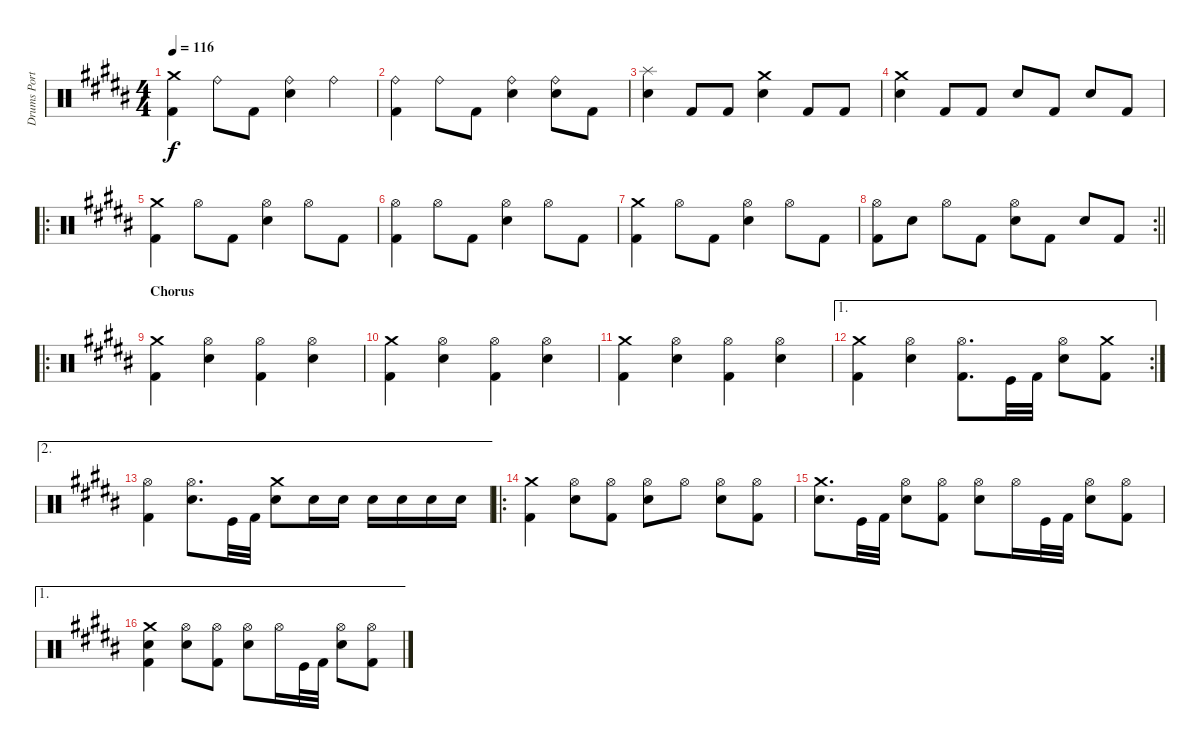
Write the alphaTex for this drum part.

\track ("Drums Portnoy" "Drums Port") {instrument percussion}
\staff {score}
\articulation defaults
\ts (4 4)
\tempo 116
\clef neutral
\ks g#minor
("Crash medium (hit)" "Kick (hit) 2").4{dy f} "Ride (bell)".8 "Kick (hit) 2".8 ("Ride (bell)" "Snare (hit) 2").4 "Ride (bell)".4 |
("Ride (bell)" "Kick (hit) 2").4 "Ride (bell)".8 "Kick (hit) 2".8 ("Ride (bell)" "Snare (hit) 2").4 ("Ride (bell)" "Snare (hit) 2").8 "Kick (hit) 2".8 |
("Splash (hit)" "Snare (hit) 2").4 "Kick (hit) 2".8 "Kick (hit) 2".8 ("Crash medium (hit)" "Snare (hit) 2").4 "Kick (hit) 2".8 "Kick (hit) 2".8 |
\ks b
("Crash medium (hit)" "Snare (hit) 2").4 "Kick (hit) 2".8 "Kick (hit) 2".8 "Snare (hit) 2".8 "Kick (hit) 2".8 "Snare (hit) 2".8 "Kick (hit) 2".8 |
\ro
\ks g#minor
("Crash medium (hit)" "Kick (hit) 2").4 "Hi-Hat (open)".8 "Kick (hit) 2".8 ("Hi-Hat (open)" "Snare (hit) 2").4 "Hi-Hat (open)".8 "Kick (hit) 2".8 |
\ks b
("Hi-Hat (open)" "Kick (hit) 2").4 "Hi-Hat (open)".8 "Kick (hit) 2".8 ("Hi-Hat (open)" "Snare (hit) 2").4 "Hi-Hat (open)".8 "Kick (hit) 2".8 |
\ks g#minor
("Crash medium (hit)" "Kick (hit) 2").4 "Hi-Hat (open)".8 "Kick (hit) 2".8 ("Hi-Hat (open)" "Snare (hit) 2").4 "Hi-Hat (open)".8 "Kick (hit) 2".8 |
\rc 2
\barLineRight lightlight
("Hi-Hat (open)" "Kick (hit) 2").8 "Snare (hit) 2".8 "Hi-Hat (open)".8 "Kick (hit) 2".8 ("Hi-Hat (open)" "Snare (hit) 2").8 "Kick (hit) 2".8 "Snare (hit) 2".8 "Kick (hit) 2".8 |
\ro
\section ("" "Chorus")
("Crash medium (hit)" "Kick (hit) 2").4 ("Hi-Hat (open)" "Snare (hit) 2").4 ("Hi-Hat (open)" "Kick (hit) 2").4 ("Hi-Hat (open)" "Snare (hit) 2").4 |
\ks b
("Crash medium (hit)" "Kick (hit) 2").4 ("Hi-Hat (open)" "Snare (hit) 2").4 ("Hi-Hat (open)" "Kick (hit) 2").4 ("Hi-Hat (open)" "Snare (hit) 2").4 |
\ks g#minor
("Crash medium (hit)" "Kick (hit) 2").4 ("Hi-Hat (open)" "Snare (hit) 2").4 ("Hi-Hat (open)" "Kick (hit) 2").4 ("Hi-Hat (open)" "Snare (hit) 2").4 |
\ae 1
\rc 2
("Crash medium (hit)" "Kick (hit) 2").4 ("Hi-Hat (open)" "Snare (hit) 2").4 ("Hi-Hat (open)" "Kick (hit) 2").8{d} "Kick (hit)".32 "Kick (hit) 2".32 ("Hi-Hat (open)" "Snare (hit) 2").8 ("Crash medium (hit)" "Kick (hit) 2").8 |
\ae 2
("Hi-Hat (open)" "Kick (hit) 2").4 ("Hi-Hat (open)" "Snare (hit) 2").8{d} "Kick (hit)".32 "Kick (hit) 2".32 ("Crash medium (hit)" "Snare (hit) 2").8 "Snare (hit) 2".16 "Snare (hit) 2".16 "Snare (hit) 2".16 "Snare (hit) 2".16 "Snare (hit) 2".16 "Snare (hit) 2".16 |
\ro
("Crash medium (hit)" "Kick (hit) 2").4 ("Hi-Hat (open)" "Snare (hit) 2").8 ("Hi-Hat (open)" "Kick (hit) 2").8 ("Hi-Hat (open)" "Snare (hit) 2").8 "Hi-Hat (open)".8 ("Hi-Hat (open)" "Snare (hit) 2").8 ("Hi-Hat (open)" "Kick (hit) 2").8 |
\ks b
("Crash medium (hit)" "Snare (hit) 2").8{d} "Kick (hit)".32 "Kick (hit) 2".32 ("Hi-Hat (open)" "Snare (hit) 2").8 ("Hi-Hat (open)" "Kick (hit) 2").8 ("Hi-Hat (open)" "Snare (hit) 2").8 "Hi-Hat (open)".16 "Kick (hit)".32 "Kick (hit) 2".32 ("Hi-Hat (open)" "Snare (hit) 2").8 ("Hi-Hat (open)" "Kick (hit) 2").8 |
\ae 1
("Crash medium (hit)" "Snare (hit) 2" "Kick (hit) 2").4 ("Hi-Hat (open)" "Snare (hit) 2").8 ("Hi-Hat (open)" "Kick (hit) 2").8 ("Hi-Hat (open)" "Snare (hit) 2").8 "Hi-Hat (open)".16 "Kick (hit)".32 "Kick (hit) 2".32 ("Hi-Hat (open)" "Snare (hit) 2").8 ("Hi-Hat (open)" "Kick (hit) 2").8
